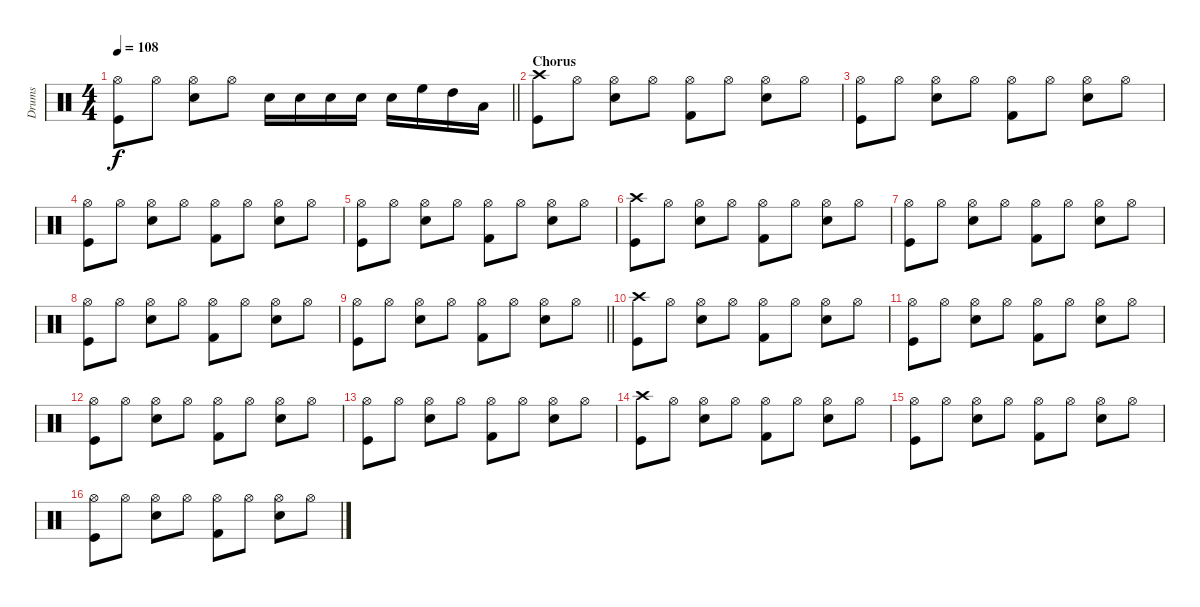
\track ("Drums" "Drums") {instrument percussion}
\staff {score}
\articulation defaults
\ts (4 4)
\tempo 108
\clef neutral
\barLineRight lightlight
\ks c
("Kick (hit)" "Hi-Hat (open)").8{dy f} "Hi-Hat (open)".8 ("Snare (hit) 2" "Hi-Hat (open)").8 "Hi-Hat (open)".8 "Snare (hit) 2".16 "Snare (hit) 2".16 "Snare (hit) 2".16 "Snare (hit) 2".16 "Snare (hit) 2".16 "High Floor Tom (hit)".16 "High Tom (hit)".16 "Low Floor Tom (hit)".16 |
\section ("" "Chorus")
("Crash high (hit)" "Kick (hit)").8 "Hi-Hat (open)".8 ("Hi-Hat (open)" "Snare (hit) 2").8 "Hi-Hat (open)".8 ("Hi-Hat (open)" "Kick (hit) 2").8 "Hi-Hat (open)".8 ("Hi-Hat (open)" "Snare (hit) 2").8 "Hi-Hat (open)".8 |
("Hi-Hat (open)" "Kick (hit)").8 "Hi-Hat (open)".8 ("Hi-Hat (open)" "Snare (hit) 2").8 "Hi-Hat (open)".8 ("Hi-Hat (open)" "Kick (hit) 2").8 "Hi-Hat (open)".8 ("Hi-Hat (open)" "Snare (hit) 2").8 "Hi-Hat (open)".8 |
("Hi-Hat (open)" "Kick (hit)").8 "Hi-Hat (open)".8 ("Hi-Hat (open)" "Snare (hit) 2").8 "Hi-Hat (open)".8 ("Hi-Hat (open)" "Kick (hit) 2").8 "Hi-Hat (open)".8 ("Hi-Hat (open)" "Snare (hit) 2").8 "Hi-Hat (open)".8 |
("Hi-Hat (open)" "Kick (hit)").8 "Hi-Hat (open)".8 ("Hi-Hat (open)" "Snare (hit) 2").8 "Hi-Hat (open)".8 ("Hi-Hat (open)" "Kick (hit) 2").8 "Hi-Hat (open)".8 ("Hi-Hat (open)" "Snare (hit) 2").8 "Hi-Hat (open)".8 |
("Crash high (hit)" "Kick (hit)").8 "Hi-Hat (open)".8 ("Hi-Hat (open)" "Snare (hit) 2").8 "Hi-Hat (open)".8 ("Hi-Hat (open)" "Kick (hit) 2").8 "Hi-Hat (open)".8 ("Hi-Hat (open)" "Snare (hit) 2").8 "Hi-Hat (open)".8 |
("Hi-Hat (open)" "Kick (hit)").8 "Hi-Hat (open)".8 ("Hi-Hat (open)" "Snare (hit) 2").8 "Hi-Hat (open)".8 ("Hi-Hat (open)" "Kick (hit) 2").8 "Hi-Hat (open)".8 ("Hi-Hat (open)" "Snare (hit) 2").8 "Hi-Hat (open)".8 |
("Hi-Hat (open)" "Kick (hit)").8 "Hi-Hat (open)".8 ("Hi-Hat (open)" "Snare (hit) 2").8 "Hi-Hat (open)".8 ("Hi-Hat (open)" "Kick (hit) 2").8 "Hi-Hat (open)".8 ("Hi-Hat (open)" "Snare (hit) 2").8 "Hi-Hat (open)".8 |
\barLineRight lightlight
("Hi-Hat (open)" "Kick (hit)").8 "Hi-Hat (open)".8 ("Hi-Hat (open)" "Snare (hit) 2").8 "Hi-Hat (open)".8 ("Hi-Hat (open)" "Kick (hit) 2").8 "Hi-Hat (open)".8 ("Hi-Hat (open)" "Snare (hit) 2").8 "Hi-Hat (open)".8 |
("Crash high (hit)" "Kick (hit)").8 "Hi-Hat (open)".8 ("Hi-Hat (open)" "Snare (hit) 2").8 "Hi-Hat (open)".8 ("Hi-Hat (open)" "Kick (hit) 2").8 "Hi-Hat (open)".8 ("Hi-Hat (open)" "Snare (hit) 2").8 "Hi-Hat (open)".8 |
("Hi-Hat (open)" "Kick (hit)").8 "Hi-Hat (open)".8 ("Hi-Hat (open)" "Snare (hit) 2").8 "Hi-Hat (open)".8 ("Hi-Hat (open)" "Kick (hit) 2").8 "Hi-Hat (open)".8 ("Hi-Hat (open)" "Snare (hit) 2").8 "Hi-Hat (open)".8 |
("Hi-Hat (open)" "Kick (hit)").8 "Hi-Hat (open)".8 ("Hi-Hat (open)" "Snare (hit) 2").8 "Hi-Hat (open)".8 ("Hi-Hat (open)" "Kick (hit) 2").8 "Hi-Hat (open)".8 ("Hi-Hat (open)" "Snare (hit) 2").8 "Hi-Hat (open)".8 |
("Hi-Hat (open)" "Kick (hit)").8 "Hi-Hat (open)".8 ("Hi-Hat (open)" "Snare (hit) 2").8 "Hi-Hat (open)".8 ("Hi-Hat (open)" "Kick (hit) 2").8 "Hi-Hat (open)".8 ("Hi-Hat (open)" "Snare (hit) 2").8 "Hi-Hat (open)".8 |
("Crash high (hit)" "Kick (hit)").8 "Hi-Hat (open)".8 ("Hi-Hat (open)" "Snare (hit) 2").8 "Hi-Hat (open)".8 ("Hi-Hat (open)" "Kick (hit) 2").8 "Hi-Hat (open)".8 ("Hi-Hat (open)" "Snare (hit) 2").8 "Hi-Hat (open)".8 |
("Hi-Hat (open)" "Kick (hit)").8 "Hi-Hat (open)".8 ("Hi-Hat (open)" "Snare (hit) 2").8 "Hi-Hat (open)".8 ("Hi-Hat (open)" "Kick (hit) 2").8 "Hi-Hat (open)".8 ("Hi-Hat (open)" "Snare (hit) 2").8 "Hi-Hat (open)".8 |
("Hi-Hat (open)" "Kick (hit)").8 "Hi-Hat (open)".8 ("Hi-Hat (open)" "Snare (hit) 2").8 "Hi-Hat (open)".8 ("Hi-Hat (open)" "Kick (hit) 2").8 "Hi-Hat (open)".8 ("Hi-Hat (open)" "Snare (hit) 2").8 "Hi-Hat (open)".8
